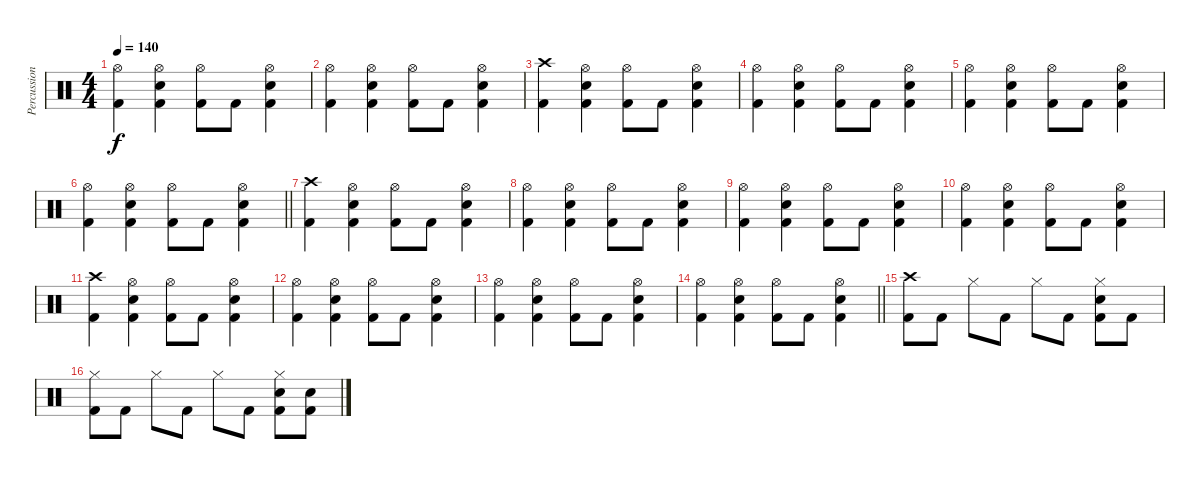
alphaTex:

\track ("Percussions" "Percussion") {instrument percussion}
\staff {score}
\articulation defaults
\ts (4 4)
\tempo 140
\clef neutral
\ks c
("Hi-Hat (open)" "Kick (hit) 2").4{dy f} ("Hi-Hat (open)" "Electric Snare (hit)" "Kick (hit) 2").4 ("Hi-Hat (open)" "Kick (hit) 2").8 "Kick (hit) 2".8 ("Hi-Hat (open)" "Electric Snare (hit)" "Kick (hit) 2").4 |
("Hi-Hat (open)" "Kick (hit) 2").4 ("Hi-Hat (open)" "Electric Snare (hit)" "Kick (hit) 2").4 ("Hi-Hat (open)" "Kick (hit) 2").8 "Kick (hit) 2".8 ("Hi-Hat (open)" "Electric Snare (hit)" "Kick (hit) 2").4 |
("Crash high (hit)" "Kick (hit) 2").4 ("Hi-Hat (open)" "Electric Snare (hit)" "Kick (hit) 2").4 ("Hi-Hat (open)" "Kick (hit) 2").8 "Kick (hit) 2".8 ("Hi-Hat (open)" "Electric Snare (hit)" "Kick (hit) 2").4 |
("Hi-Hat (open)" "Kick (hit) 2").4 ("Hi-Hat (open)" "Electric Snare (hit)" "Kick (hit) 2").4 ("Hi-Hat (open)" "Kick (hit) 2").8 "Kick (hit) 2".8 ("Hi-Hat (open)" "Electric Snare (hit)" "Kick (hit) 2").4 |
("Hi-Hat (open)" "Kick (hit) 2").4 ("Hi-Hat (open)" "Electric Snare (hit)" "Kick (hit) 2").4 ("Hi-Hat (open)" "Kick (hit) 2").8 "Kick (hit) 2".8 ("Hi-Hat (open)" "Electric Snare (hit)" "Kick (hit) 2").4 |
\barLineRight lightlight
("Hi-Hat (open)" "Kick (hit) 2").4 ("Hi-Hat (open)" "Electric Snare (hit)" "Kick (hit) 2").4 ("Hi-Hat (open)" "Kick (hit) 2").8 "Kick (hit) 2".8 ("Hi-Hat (open)" "Electric Snare (hit)" "Kick (hit) 2").4 |
("Crash high (hit)" "Kick (hit) 2").4 ("Hi-Hat (open)" "Electric Snare (hit)" "Kick (hit) 2").4 ("Hi-Hat (open)" "Kick (hit) 2").8 "Kick (hit) 2".8 ("Hi-Hat (open)" "Electric Snare (hit)" "Kick (hit) 2").4 |
("Hi-Hat (open)" "Kick (hit) 2").4 ("Hi-Hat (open)" "Electric Snare (hit)" "Kick (hit) 2").4 ("Hi-Hat (open)" "Kick (hit) 2").8 "Kick (hit) 2".8 ("Hi-Hat (open)" "Electric Snare (hit)" "Kick (hit) 2").4 |
("Hi-Hat (open)" "Kick (hit) 2").4 ("Hi-Hat (open)" "Electric Snare (hit)" "Kick (hit) 2").4 ("Hi-Hat (open)" "Kick (hit) 2").8 "Kick (hit) 2".8 ("Hi-Hat (open)" "Electric Snare (hit)" "Kick (hit) 2").4 |
("Hi-Hat (open)" "Kick (hit) 2").4 ("Hi-Hat (open)" "Electric Snare (hit)" "Kick (hit) 2").4 ("Hi-Hat (open)" "Kick (hit) 2").8 "Kick (hit) 2".8 ("Hi-Hat (open)" "Electric Snare (hit)" "Kick (hit) 2").4 |
("Crash high (hit)" "Kick (hit) 2").4 ("Hi-Hat (open)" "Electric Snare (hit)" "Kick (hit) 2").4 ("Hi-Hat (open)" "Kick (hit) 2").8 "Kick (hit) 2".8 ("Hi-Hat (open)" "Electric Snare (hit)" "Kick (hit) 2").4 |
("Hi-Hat (open)" "Kick (hit) 2").4 ("Hi-Hat (open)" "Electric Snare (hit)" "Kick (hit) 2").4 ("Hi-Hat (open)" "Kick (hit) 2").8 "Kick (hit) 2".8 ("Hi-Hat (open)" "Electric Snare (hit)" "Kick (hit) 2").4 |
("Hi-Hat (open)" "Kick (hit) 2").4 ("Hi-Hat (open)" "Electric Snare (hit)" "Kick (hit) 2").4 ("Hi-Hat (open)" "Kick (hit) 2").8 "Kick (hit) 2".8 ("Hi-Hat (open)" "Electric Snare (hit)" "Kick (hit) 2").4 |
\barLineRight lightlight
("Hi-Hat (open)" "Kick (hit) 2").4 ("Hi-Hat (open)" "Electric Snare (hit)" "Kick (hit) 2").4 ("Hi-Hat (open)" "Kick (hit) 2").8 "Kick (hit) 2".8 ("Hi-Hat (open)" "Electric Snare (hit)" "Kick (hit) 2").4 |
("Crash high (hit)" "Kick (hit) 2").8 "Kick (hit) 2".8 "Hi-Hat (closed)".8 "Kick (hit) 2".8 "Hi-Hat (closed)".8 "Kick (hit) 2".8 ("Hi-Hat (closed)" "Electric Snare (hit)" "Kick (hit) 2").8 "Kick (hit) 2".8 |
("Hi-Hat (closed)" "Kick (hit) 2").8 "Kick (hit) 2".8 "Hi-Hat (closed)".8 "Kick (hit) 2".8 "Hi-Hat (closed)".8 "Kick (hit) 2".8 ("Hi-Hat (closed)" "Electric Snare (hit)" "Kick (hit) 2").8 ("Electric Snare (hit)" "Kick (hit) 2").8
